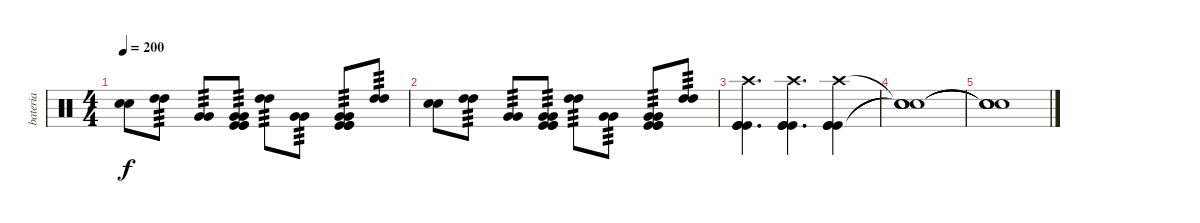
\track ("bateria" "bateria") {instrument percussion}
\staff {score}
\articulation defaults
\ts (4 4)
\tempo 200
\clef neutral
\ks c
("Electric Snare (hit)" "Electric Snare (hit)").8{dy f} ("High Tom (hit)" "High Tom (hit)").8{tp 3} ("Very Low Tom (hit)" "Very Low Tom (hit)").8{tp 3} ("Kick (hit)" "Kick (hit)" "Kick (hit)" "Very Low Tom (hit)" "Very Low Tom (hit)").8{tp 3} ("High Tom (hit)" "High Tom (hit)").8{tp 3} ("Very Low Tom (hit)" "Very Low Tom (hit)").8{tp 3} ("Kick (hit)" "Kick (hit)" "Kick (hit)" "Very Low Tom (hit)" "Very Low Tom (hit)").8{tp 3} ("High Tom (hit)" "High Tom (hit)").8{tp 3} |
("Electric Snare (hit)" "Electric Snare (hit)").8 ("High Tom (hit)" "High Tom (hit)").8{tp 3} ("Very Low Tom (hit)" "Very Low Tom (hit)").8{tp 3} ("Kick (hit)" "Kick (hit)" "Kick (hit)" "Very Low Tom (hit)" "Very Low Tom (hit)").8{tp 3} ("High Tom (hit)" "High Tom (hit)").8{tp 3} ("Very Low Tom (hit)" "Very Low Tom (hit)").8{tp 3} ("Kick (hit)" "Kick (hit)" "Kick (hit)" "Very Low Tom (hit)" "Very Low Tom (hit)").8{tp 3} ("High Tom (hit)" "High Tom (hit)").8{tp 3} |
("Crash high (hit)" "Kick (hit)" "Kick (hit)" "Kick (hit)").4{d} ("Crash high (hit)" "Kick (hit)" "Kick (hit)" "Kick (hit)").4{d} ("Crash high (hit)" "Kick (hit)" "Kick (hit)" "Kick (hit)").4 |
("Snare (hit)"{t} "Snare (hit)"{t} "Snare (hit)"{t} "Snare (hit)"{t}).1 |
("Snare (hit)"{t} "Snare (hit)"{t} "Snare (hit)"{t} "Snare (hit)"{t}).1
